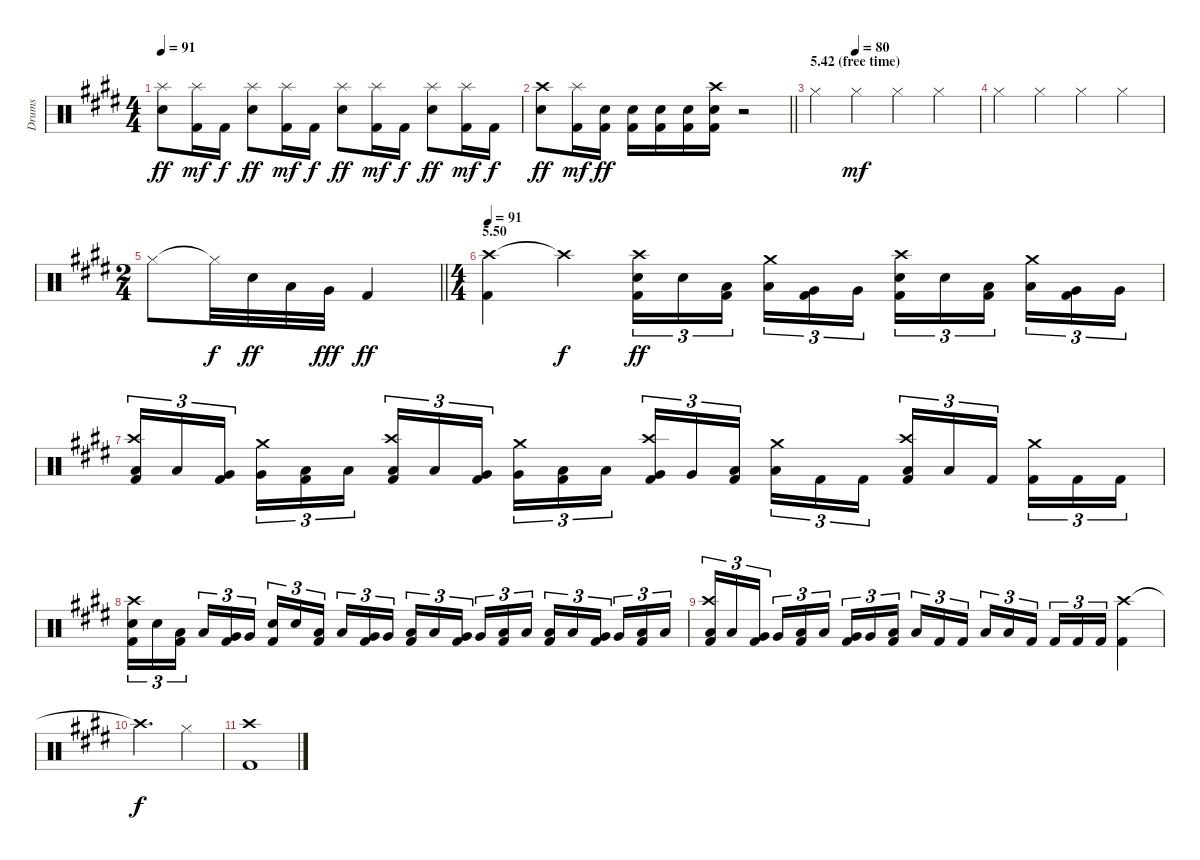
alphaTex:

\track ("Drums" "Drums") {instrument percussion}
\staff {score}
\articulation defaults
\ts (4 4)
\tempo 91
\clef neutral
\ks e
("Splash (hit)" "Snare (hit) 2").8{dy ff} ("Splash (hit)" "Kick (hit) 2").16{dy mf} "Kick (hit) 2".16{dy f} ("Splash (hit)" "Snare (hit) 2").8{dy ff} ("Splash (hit)" "Kick (hit) 2").16{dy mf} "Kick (hit) 2".16{dy f} ("Splash (hit)" "Snare (hit) 2").8{dy ff} ("Splash (hit)" "Kick (hit) 2").16{dy mf} "Kick (hit) 2".16{dy f} ("Splash (hit)" "Snare (hit) 2").8{dy ff} ("Splash (hit)" "Kick (hit) 2").16{dy mf} "Kick (hit) 2".16{dy f} |
\barLineRight lightlight
("Crash high (hit)" "Snare (hit) 2").8{dy ff} ("Splash (hit)" "Kick (hit) 2").16{dy mf} ("Snare (hit) 2" "Kick (hit) 2").16{dy ff} ("Snare (hit) 2" "Kick (hit) 2").16 ("Snare (hit) 2" "Kick (hit) 2").16 ("Snare (hit) 2" "Kick (hit) 2").16 ("Crash high (hit)" "Snare (hit) 2" "Kick (hit) 2").16 r.2 |
\section ("" "5.42 (free time)")
\tempo (80 0.25)
"Hi-Hat (closed)".4 "Hi-Hat (closed)".4{dy mf} "Hi-Hat (closed)".4 "Hi-Hat (closed)".4 |
"Hi-Hat (closed)".4 "Hi-Hat (closed)".4 "Hi-Hat (closed)".4 "Hi-Hat (closed)".4 |
\ts (2 4)
\barLineRight lightlight "Hi-Hat (closed)".8 "Hi-Hat (closed)"{t}.32{dy f} "Snare (hit) 2".32{dy ff} "Low Tom (hit)".32 "Very Low Tom (hit)".32{dy fff} "Kick (hit) 2".4{dy ff}
|
\ts (4 4)
\section ("" "5.50")
\tempo 91
("Crash high (hit)" "Kick (hit) 2").4 "Crash high (hit)"{t}.4{dy f} ("Crash high (hit)" "Snare (hit) 2" "Kick (hit) 2").16{tu (3 2) dy ff} "Snare (hit) 2".16{tu (3 2)} ("Low Tom (hit)" "Kick (hit) 2").16{tu (3 2) beam splitsecondary} ("Crash medium (hit)" "Low Tom (hit)").16{tu (3 2)} ("Very Low Tom (hit)" "Kick (hit) 2").16{tu (3 2)} "Very Low Tom (hit)".16{tu (3 2)} ("Crash high (hit)" "Snare (hit) 2" "Kick (hit) 2").16{tu (3 2)} "Snare (hit) 2".16{tu (3 2)} ("Low Tom (hit)" "Kick (hit) 2").16{tu (3 2) beam splitsecondary} ("Crash medium (hit)" "Low Tom (hit)").16{tu (3 2)} ("Very Low Tom (hit)" "Kick (hit) 2").16{tu (3 2)} "Very Low Tom (hit)".16{tu (3 2)} |
("Crash high (hit)" "Low Tom (hit)" "Kick (hit) 2").16{tu (3 2)} "Low Tom (hit)".16{tu (3 2)} ("Very Low Tom (hit)" "Kick (hit) 2").16{tu (3 2) beam splitsecondary} ("Crash medium (hit)" "Very Low Tom (hit)").16{tu (3 2)} ("Low Floor Tom (hit)" "Kick (hit) 2").16{tu (3 2)} "Low Floor Tom (hit)".16{tu (3 2)} ("Crash high (hit)" "Low Tom (hit)" "Kick (hit) 2").16{tu (3 2)} "Low Tom (hit)".16{tu (3 2)} ("Very Low Tom (hit)" "Kick (hit) 2").16{tu (3 2) beam splitsecondary} ("Crash medium (hit)" "Very Low Tom (hit)").16{tu (3 2)} ("Low Floor Tom (hit)" "Kick (hit) 2").16{tu (3 2)} "Low Floor Tom (hit)".16{tu (3 2)} ("Crash high (hit)" "Very Low Tom (hit)" "Kick (hit) 2").16{tu (3 2)} "Very Low Tom (hit)".16{tu (3 2)} ("Low Floor Tom (hit)" "Kick (hit) 2").16{tu (3 2) beam splitsecondary} ("Crash medium (hit)" "Low Floor Tom (hit)").16{tu (3 2)} "Kick (hit) 2".16{tu (3 2)} "Kick (hit) 2".16{tu (3 2)} ("Crash high (hit)" "Low Floor Tom (hit)" "Kick (hit) 2").16{tu (3 2)} "Low Floor Tom (hit)".16{tu (3 2)} "Kick (hit) 2".16{tu (3 2) beam splitsecondary} ("Crash medium (hit)" "Kick (hit) 2").16{tu (3 2)} "Kick (hit) 2".16{tu (3 2)} "Kick (hit) 2".16{tu (3 2)} |
("Crash high (hit)" "Snare (hit) 2" "Kick (hit) 2").16{tu (3 2)} "Snare (hit) 2".16{tu (3 2)} ("Low Tom (hit)" "Kick (hit) 2").16{tu (3 2) beam splitsecondary} "Low Tom (hit)".16{tu (3 2)} ("Very Low Tom (hit)" "Kick (hit) 2").16{tu (3 2)} "Very Low Tom (hit)".16{tu (3 2)} ("Snare (hit) 2" "Kick (hit) 2").16{tu (3 2)} "Snare (hit) 2".16{tu (3 2)} ("Low Tom (hit)" "Kick (hit) 2").16{tu (3 2) beam splitsecondary} "Low Tom (hit)".16{tu (3 2)} ("Very Low Tom (hit)" "Kick (hit) 2").16{tu (3 2)} "Very Low Tom (hit)".16{tu (3 2)} ("Low Tom (hit)" "Kick (hit) 2").16{tu (3 2)} "Low Tom (hit)".16{tu (3 2)} ("Very Low Tom (hit)" "Kick (hit) 2").16{tu (3 2) beam splitsecondary} "Very Low Tom (hit)".16{tu (3 2)} ("Low Floor Tom (hit)" "Kick (hit) 2").16{tu (3 2)} "Low Floor Tom (hit)".16{tu (3 2)} ("Low Tom (hit)" "Kick (hit) 2").16{tu (3 2)} "Low Tom (hit)".16{tu (3 2)} ("Very Low Tom (hit)" "Kick (hit) 2").16{tu (3 2) beam splitsecondary} "Very Low Tom (hit)".16{tu (3 2)} ("Low Floor Tom (hit)" "Kick (hit) 2").16{tu (3 2)} "Low Floor Tom (hit)".16{tu (3 2)} |
("Crash high (hit)" "Low Tom (hit)" "Kick (hit) 2").16{tu (3 2)} "Low Tom (hit)".16{tu (3 2)} ("Very Low Tom (hit)" "Kick (hit) 2").16{tu (3 2) beam splitsecondary} "Very Low Tom (hit)".16{tu (3 2)} ("Low Floor Tom (hit)" "Kick (hit) 2").16{tu (3 2)} "Low Floor Tom (hit)".16{tu (3 2)} ("Very Low Tom (hit)" "Kick (hit) 2").16{tu (3 2)} "Very Low Tom (hit)".16{tu (3 2)} ("Low Floor Tom (hit)" "Kick (hit) 2").16{tu (3 2) beam splitsecondary} "Low Floor Tom (hit)".16{tu (3 2)} "Kick (hit) 2".16{tu (3 2)} "Kick (hit) 2".16{tu (3 2)} "Low Floor Tom (hit)".16{tu (3 2)} "Low Floor Tom (hit)".16{tu (3 2)} "Kick (hit) 2".16{tu (3 2) beam splitsecondary} "Kick (hit) 2".16{tu (3 2)} "Kick (hit) 2".16{tu (3 2)} "Kick (hit) 2".16{tu (3 2)} ("Crash high (hit)" "Kick (hit) 2").4 |
"Crash high (hit)"{t}.2{d dy f} "Hi-Hat (closed)".4 |
("Crash high (hit)" "Kick (hit) 2").1
